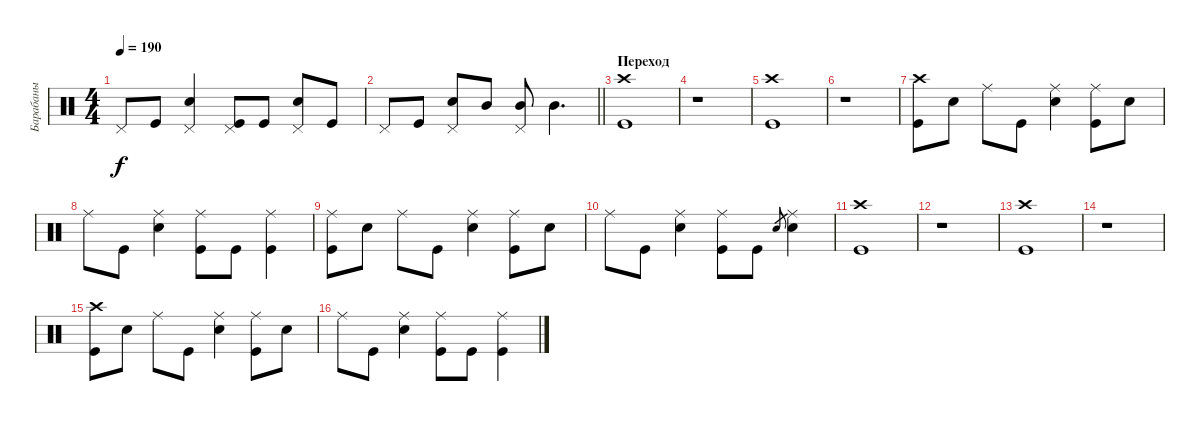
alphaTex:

\track ("Барабаны" "Барабаны") {instrument percussion}
\staff {score}
\articulation defaults
\ts (4 4)
\tempo 190
\clef neutral
\ks c "Pedal Hi-Hat (hit)".8{dy f} "Kick (hit)".8
("Snare (hit) 2" "Pedal Hi-Hat (hit)").4 ("Kick (hit)" "Pedal Hi-Hat (hit)").8 "Kick (hit)".8 ("Snare (hit) 2" "Pedal Hi-Hat (hit)").8 "Kick (hit)".8 |
\barLineRight lightlight "Pedal Hi-Hat (hit)".8 "Kick (hit)".8
("Snare (hit) 2" "Pedal Hi-Hat (hit)").8 "Mid Tom (hit)".8 ("Mid Tom (hit)" "Pedal Hi-Hat (hit)").8 "Mid Tom (hit)".4{d} |
\section ("" "Переход")
("Kick (hit)" "Crash high (hit)").1 |
r.1 |
("Kick (hit)" "Crash high (hit)").1 |
r.1 |
("Kick (hit)" "Crash high (hit)").8 "Snare (hit) 2".8 "Ride (middle)".8 "Kick (hit)".8 ("Snare (hit) 2" "Ride (middle)").4 ("Kick (hit)" "Ride (middle)").8 "Snare (hit) 2".8 |
"Ride (middle)".8 "Kick (hit)".8 ("Snare (hit) 2" "Ride (middle)").4 ("Kick (hit)" "Ride (middle)").8 "Kick (hit)".8 ("Kick (hit)" "Ride (middle)").4 |
("Kick (hit)" "Ride (middle)").8 "Snare (hit) 2".8 "Ride (middle)".8 "Kick (hit)".8 ("Snare (hit) 2" "Ride (middle)").4 ("Kick (hit)" "Ride (middle)").8 "Snare (hit) 2".8 |
"Ride (middle)".8 "Kick (hit)".8 ("Snare (hit) 2" "Ride (middle)").4 ("Kick (hit)" "Ride (middle)").8 "Kick (hit)".8 "Snare (hit) 2".8{gr} ("Snare (hit) 2" "Ride (middle)").4 |
("Kick (hit)" "Crash high (hit)").1 |
r.1 |
("Kick (hit)" "Crash high (hit)").1 |
r.1 |
("Kick (hit)" "Crash high (hit)").8 "Snare (hit) 2".8 "Ride (middle)".8 "Kick (hit)".8 ("Snare (hit) 2" "Ride (middle)").4 ("Kick (hit)" "Ride (middle)").8 "Snare (hit) 2".8 |
"Ride (middle)".8 "Kick (hit)".8 ("Snare (hit) 2" "Ride (middle)").4 ("Kick (hit)" "Ride (middle)").8 "Kick (hit)".8 ("Kick (hit)" "Ride (middle)").4
